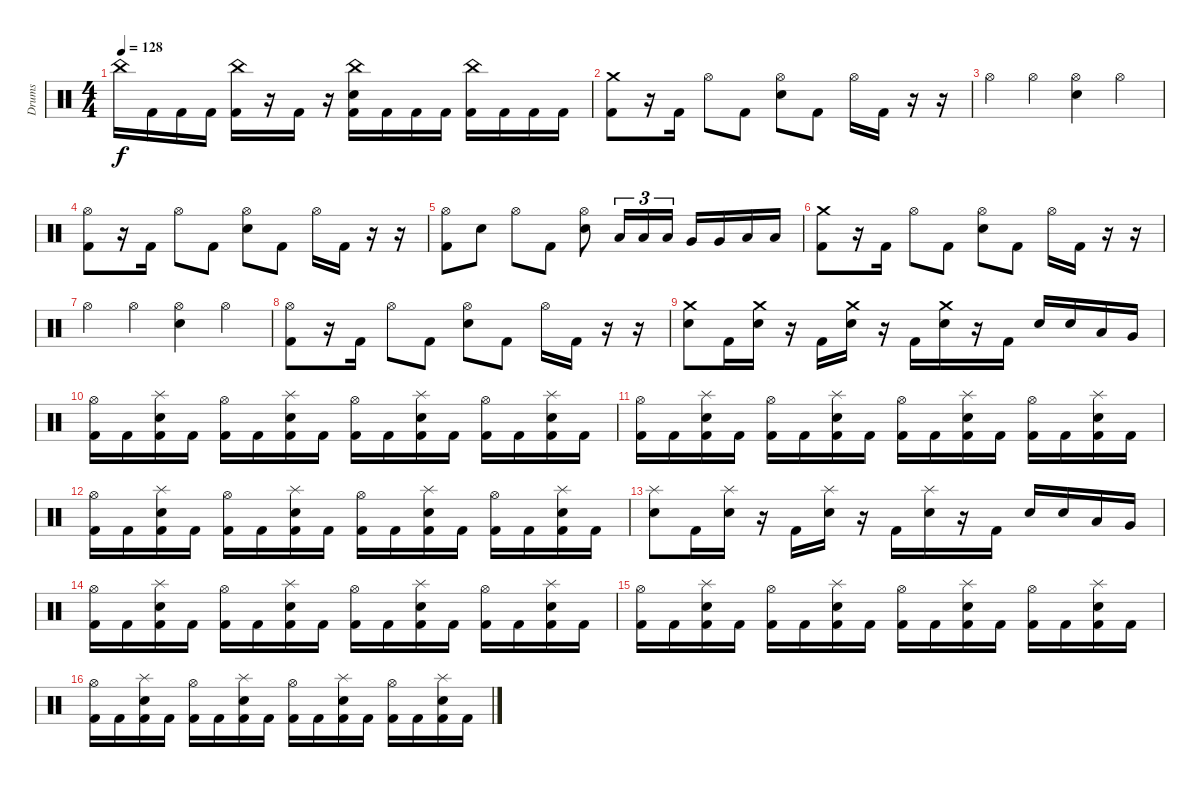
\track ("Drums" "Drums") {instrument percussion}
\staff {score}
\articulation defaults
\ts (4 4)
\tempo 128
\clef neutral
\ks c "China (hit)".16{dy f} "Kick (hit) 2".16 "Kick (hit) 2".16 "Kick (hit) 2".16
("China (hit)" "Kick (hit) 2").16 r.16 "Kick (hit) 2".16 r.16 ("China (hit)" "Electric Snare (hit)" "Kick (hit) 2").16 "Kick (hit) 2".16 "Kick (hit) 2".16 "Kick (hit) 2".16 ("China (hit)" "Kick (hit) 2").16 "Kick (hit) 2".16 "Kick (hit) 2".16 "Kick (hit) 2".16 |
("Crash medium (hit)" "Kick (hit) 2").8 r.16 "Kick (hit) 2".16 "Hi-Hat (open)".8 "Kick (hit) 2".8 ("Hi-Hat (open)" "Electric Snare (hit)").8 "Kick (hit) 2".8 "Hi-Hat (open)".16 "Kick (hit) 2".16 r.16 r.16 |
"Hi-Hat (open)".4 "Hi-Hat (open)".4 ("Hi-Hat (open)" "Electric Snare (hit)").4 "Hi-Hat (open)".4 |
("Hi-Hat (open)" "Kick (hit) 2").8 r.16 "Kick (hit) 2".16 "Hi-Hat (open)".8 "Kick (hit) 2".8 ("Hi-Hat (open)" "Electric Snare (hit)").8 "Kick (hit) 2".8 "Hi-Hat (open)".16 "Kick (hit) 2".16 r.16 r.16 |
("Hi-Hat (open)" "Kick (hit) 2").8 "Electric Snare (hit)".8 "Hi-Hat (open)".8 "Kick (hit) 2".8 ("Hi-Hat (open)" "Electric Snare (hit)").8 "Low Tom (hit)".16{tu (3 2)} "Low Tom (hit)".16{tu (3 2)} "Low Tom (hit)".16{tu (3 2)} "Very Low Tom (hit)".16 "Very Low Tom (hit)".16 "Low Floor Tom (hit)".16 "Low Floor Tom (hit)".16 |
("Crash medium (hit)" "Kick (hit) 2").8 r.16 "Kick (hit) 2".16 "Hi-Hat (open)".8 "Kick (hit) 2".8 ("Hi-Hat (open)" "Electric Snare (hit)").8 "Kick (hit) 2".8 "Hi-Hat (open)".16 "Kick (hit) 2".16 r.16 r.16 |
"Hi-Hat (open)".4 "Hi-Hat (open)".4 ("Hi-Hat (open)" "Electric Snare (hit)").4 "Hi-Hat (open)".4 |
("Hi-Hat (open)" "Kick (hit) 2").8 r.16 "Kick (hit) 2".16 "Hi-Hat (open)".8 "Kick (hit) 2".8 ("Hi-Hat (open)" "Electric Snare (hit)").8 "Kick (hit) 2".8 "Hi-Hat (open)".16 "Kick (hit) 2".16 r.16 r.16 |
("Crash medium (hit)" "Electric Snare (hit)").8 "Kick (hit) 2".16 ("Crash medium (hit)" "Electric Snare (hit)").16 r.16 "Kick (hit) 2".16 ("Crash medium (hit)" "Electric Snare (hit)").16 r.16 "Kick (hit) 2".16 ("Crash medium (hit)" "Electric Snare (hit)").16 r.16 "Kick (hit) 2".16 "Electric Snare (hit)".16 "Electric Snare (hit)".16 "Low Tom (hit)".16 "Very Low Tom (hit)".16 |
("Hi-Hat (open)" "Kick (hit) 2").16 "Kick (hit) 2".16 ("Splash (hit)" "Electric Snare (hit)" "Kick (hit) 2").16 "Kick (hit) 2".16 ("Hi-Hat (open)" "Kick (hit) 2").16 "Kick (hit) 2".16 ("Splash (hit)" "Electric Snare (hit)" "Kick (hit) 2").16 "Kick (hit) 2".16 ("Hi-Hat (open)" "Kick (hit) 2").16 "Kick (hit) 2".16 ("Splash (hit)" "Electric Snare (hit)" "Kick (hit) 2").16 "Kick (hit) 2".16 ("Hi-Hat (open)" "Kick (hit) 2").16 "Kick (hit) 2".16 ("Splash (hit)" "Electric Snare (hit)" "Kick (hit) 2").16 "Kick (hit) 2".16 |
("Hi-Hat (open)" "Kick (hit) 2").16 "Kick (hit) 2".16 ("Splash (hit)" "Electric Snare (hit)" "Kick (hit) 2").16 "Kick (hit) 2".16 ("Hi-Hat (open)" "Kick (hit) 2").16 "Kick (hit) 2".16 ("Splash (hit)" "Electric Snare (hit)" "Kick (hit) 2").16 "Kick (hit) 2".16 ("Hi-Hat (open)" "Kick (hit) 2").16 "Kick (hit) 2".16 ("Splash (hit)" "Electric Snare (hit)" "Kick (hit) 2").16 "Kick (hit) 2".16 ("Hi-Hat (open)" "Kick (hit) 2").16 "Kick (hit) 2".16 ("Splash (hit)" "Electric Snare (hit)" "Kick (hit) 2").16 "Kick (hit) 2".16 |
("Hi-Hat (open)" "Kick (hit) 2").16 "Kick (hit) 2".16 ("Splash (hit)" "Electric Snare (hit)" "Kick (hit) 2").16 "Kick (hit) 2".16 ("Hi-Hat (open)" "Kick (hit) 2").16 "Kick (hit) 2".16 ("Splash (hit)" "Electric Snare (hit)" "Kick (hit) 2").16 "Kick (hit) 2".16 ("Hi-Hat (open)" "Kick (hit) 2").16 "Kick (hit) 2".16 ("Splash (hit)" "Electric Snare (hit)" "Kick (hit) 2").16 "Kick (hit) 2".16 ("Hi-Hat (open)" "Kick (hit) 2").16 "Kick (hit) 2".16 ("Splash (hit)" "Electric Snare (hit)" "Kick (hit) 2").16 "Kick (hit) 2".16 |
("Splash (hit)" "Electric Snare (hit)").8 "Kick (hit) 2".16 ("Splash (hit)" "Electric Snare (hit)").16 r.16 "Kick (hit) 2".16 ("Splash (hit)" "Electric Snare (hit)").16 r.16 "Kick (hit) 2".16 ("Splash (hit)" "Electric Snare (hit)").16 r.16 "Kick (hit) 2".16 "Electric Snare (hit)".16 "Electric Snare (hit)".16 "Low Tom (hit)".16 "Very Low Tom (hit)".16 |
("Hi-Hat (open)" "Kick (hit) 2").16 "Kick (hit) 2".16 ("Splash (hit)" "Electric Snare (hit)" "Kick (hit) 2").16 "Kick (hit) 2".16 ("Hi-Hat (open)" "Kick (hit) 2").16 "Kick (hit) 2".16 ("Splash (hit)" "Electric Snare (hit)" "Kick (hit) 2").16 "Kick (hit) 2".16 ("Hi-Hat (open)" "Kick (hit) 2").16 "Kick (hit) 2".16 ("Splash (hit)" "Electric Snare (hit)" "Kick (hit) 2").16 "Kick (hit) 2".16 ("Hi-Hat (open)" "Kick (hit) 2").16 "Kick (hit) 2".16 ("Splash (hit)" "Electric Snare (hit)" "Kick (hit) 2").16 "Kick (hit) 2".16 |
("Hi-Hat (open)" "Kick (hit) 2").16 "Kick (hit) 2".16 ("Splash (hit)" "Electric Snare (hit)" "Kick (hit) 2").16 "Kick (hit) 2".16 ("Hi-Hat (open)" "Kick (hit) 2").16 "Kick (hit) 2".16 ("Splash (hit)" "Electric Snare (hit)" "Kick (hit) 2").16 "Kick (hit) 2".16 ("Hi-Hat (open)" "Kick (hit) 2").16 "Kick (hit) 2".16 ("Splash (hit)" "Electric Snare (hit)" "Kick (hit) 2").16 "Kick (hit) 2".16 ("Hi-Hat (open)" "Kick (hit) 2").16 "Kick (hit) 2".16 ("Splash (hit)" "Electric Snare (hit)" "Kick (hit) 2").16 "Kick (hit) 2".16 |
("Hi-Hat (open)" "Kick (hit) 2").16 "Kick (hit) 2".16 ("Splash (hit)" "Electric Snare (hit)" "Kick (hit) 2").16 "Kick (hit) 2".16 ("Hi-Hat (open)" "Kick (hit) 2").16 "Kick (hit) 2".16 ("Splash (hit)" "Electric Snare (hit)" "Kick (hit) 2").16 "Kick (hit) 2".16 ("Hi-Hat (open)" "Kick (hit) 2").16 "Kick (hit) 2".16 ("Splash (hit)" "Electric Snare (hit)" "Kick (hit) 2").16 "Kick (hit) 2".16 ("Hi-Hat (open)" "Kick (hit) 2").16 "Kick (hit) 2".16 ("Splash (hit)" "Electric Snare (hit)" "Kick (hit) 2").16 "Kick (hit) 2".16
